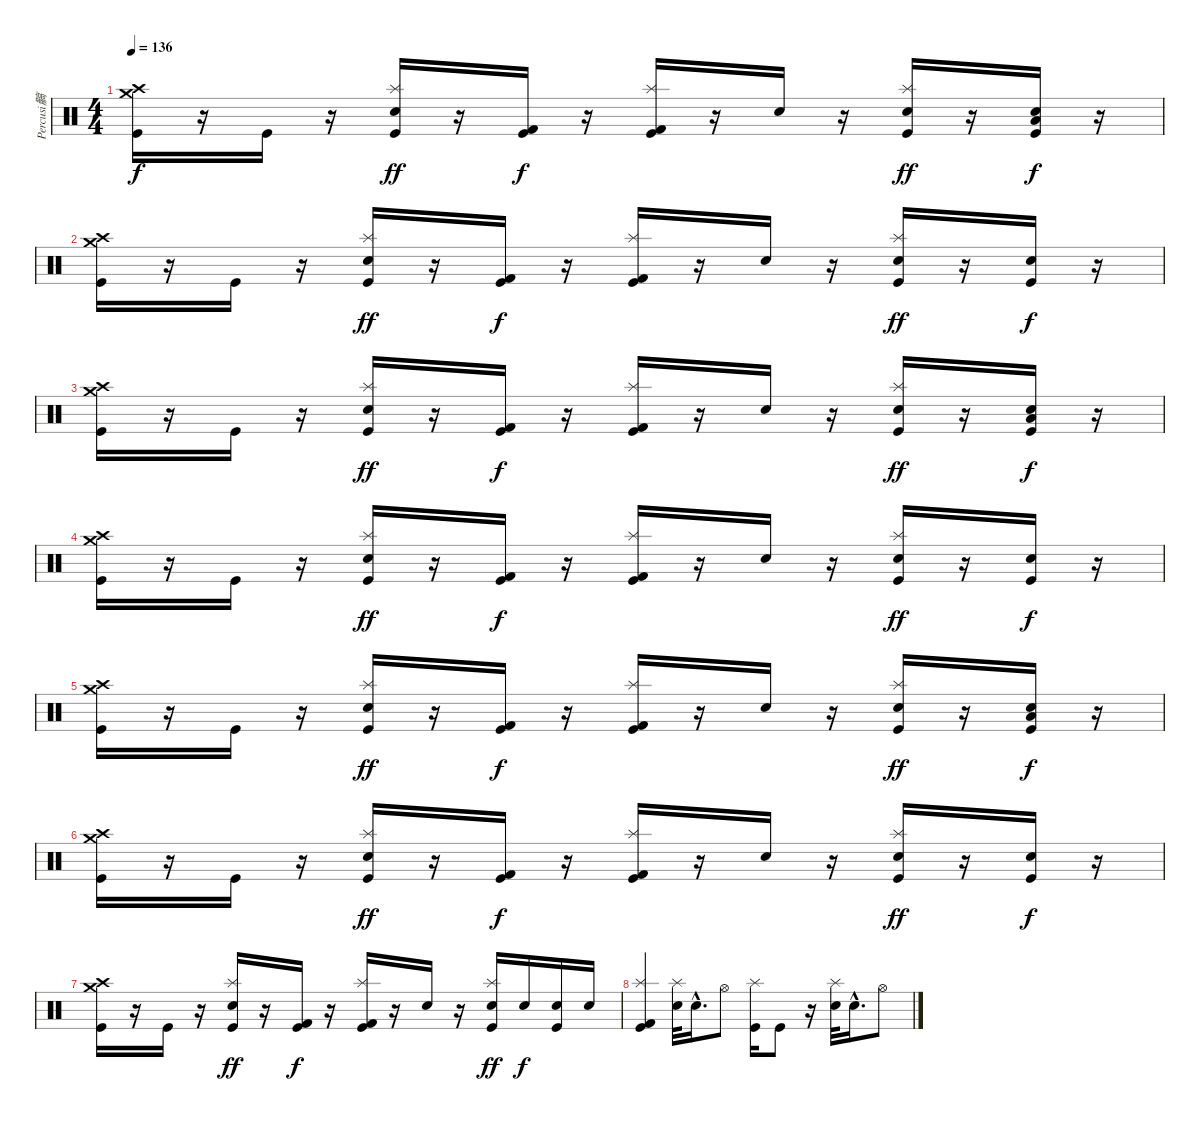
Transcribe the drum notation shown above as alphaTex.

\track ("Percusi髇" "Percusi髇") {instrument percussion}
\staff {score}
\articulation defaults
\ts (4 4)
\tempo 136
\clef neutral
\ks c
("Crash medium (hit)" "Crash high (hit)" "Kick (hit)").16{dy f} r.16 "Kick (hit)".16 r.16 ("Splash (hit)" "Electric Snare (hit)" "Kick (hit)").16{dy ff} r.16 ("Kick (hit) 2" "Kick (hit)").16{dy f} r.16 ("Splash (hit)" "Kick (hit) 2" "Kick (hit)").16 r.16 "Electric Snare (hit)".16 r.16 ("Splash (hit)" "Electric Snare (hit)" "Kick (hit)").16{dy ff} r.16 ("Low Tom (hit)" "Electric Snare (hit)" "Kick (hit)").16{dy f} r.16 |
("Crash medium (hit)" "Crash high (hit)" "Kick (hit)").16 r.16 "Kick (hit)".16 r.16 ("Splash (hit)" "Electric Snare (hit)" "Kick (hit)").16{dy ff} r.16 ("Kick (hit) 2" "Kick (hit)").16{dy f} r.16 ("Splash (hit)" "Kick (hit) 2" "Kick (hit)").16 r.16 "Electric Snare (hit)".16 r.16 ("Splash (hit)" "Electric Snare (hit)" "Kick (hit)").16{dy ff} r.16 ("Electric Snare (hit)" "Kick (hit)").16{dy f} r.16 |
("Crash medium (hit)" "Crash high (hit)" "Kick (hit)").16 r.16 "Kick (hit)".16 r.16 ("Splash (hit)" "Electric Snare (hit)" "Kick (hit)").16{dy ff} r.16 ("Kick (hit) 2" "Kick (hit)").16{dy f} r.16 ("Splash (hit)" "Kick (hit) 2" "Kick (hit)").16 r.16 "Electric Snare (hit)".16 r.16 ("Splash (hit)" "Electric Snare (hit)" "Kick (hit)").16{dy ff} r.16 ("Low Tom (hit)" "Electric Snare (hit)" "Kick (hit)").16{dy f} r.16 |
("Crash medium (hit)" "Crash high (hit)" "Kick (hit)").16 r.16 "Kick (hit)".16 r.16 ("Splash (hit)" "Electric Snare (hit)" "Kick (hit)").16{dy ff} r.16 ("Kick (hit) 2" "Kick (hit)").16{dy f} r.16 ("Splash (hit)" "Kick (hit) 2" "Kick (hit)").16 r.16 "Electric Snare (hit)".16 r.16 ("Splash (hit)" "Electric Snare (hit)" "Kick (hit)").16{dy ff} r.16 ("Electric Snare (hit)" "Kick (hit)").16{dy f} r.16 |
("Crash medium (hit)" "Crash high (hit)" "Kick (hit)").16 r.16 "Kick (hit)".16 r.16 ("Splash (hit)" "Electric Snare (hit)" "Kick (hit)").16{dy ff} r.16 ("Kick (hit) 2" "Kick (hit)").16{dy f} r.16 ("Splash (hit)" "Kick (hit) 2" "Kick (hit)").16 r.16 "Electric Snare (hit)".16 r.16 ("Splash (hit)" "Electric Snare (hit)" "Kick (hit)").16{dy ff} r.16 ("Low Tom (hit)" "Electric Snare (hit)" "Kick (hit)").16{dy f} r.16 |
("Crash medium (hit)" "Crash high (hit)" "Kick (hit)").16 r.16 "Kick (hit)".16 r.16 ("Splash (hit)" "Electric Snare (hit)" "Kick (hit)").16{dy ff} r.16 ("Kick (hit) 2" "Kick (hit)").16{dy f} r.16 ("Splash (hit)" "Kick (hit) 2" "Kick (hit)").16 r.16 "Electric Snare (hit)".16 r.16 ("Splash (hit)" "Electric Snare (hit)" "Kick (hit)").16{dy ff} r.16 ("Electric Snare (hit)" "Kick (hit)").16{dy f} r.16 |
("Crash medium (hit)" "Crash high (hit)" "Kick (hit)").16 r.16 "Kick (hit)".16 r.16 ("Splash (hit)" "Electric Snare (hit)" "Kick (hit)").16{dy ff} r.16 ("Kick (hit) 2" "Kick (hit)").16{dy f} r.16 ("Splash (hit)" "Kick (hit) 2" "Kick (hit)").16 r.16 "Electric Snare (hit)".16 r.16 ("Splash (hit)" "Electric Snare (hit)" "Kick (hit)").16{dy ff} "Electric Snare (hit)".16{dy f} ("Electric Snare (hit)" "Kick (hit)").16 "Electric Snare (hit)".16 |
("Splash (hit)" "Kick (hit) 2" "Kick (hit)").4 ("Splash (hit)" "Electric Snare (hit)").32 "Electric Snare (hit)"{hac}.16{d} "Hi-Hat (open)".8 ("Splash (hit)" "Kick (hit)").16 "Kick (hit)".8 r.16 ("Splash (hit)" "Electric Snare (hit)").32 "Electric Snare (hit)"{hac}.16{d} "Hi-Hat (open)".8
